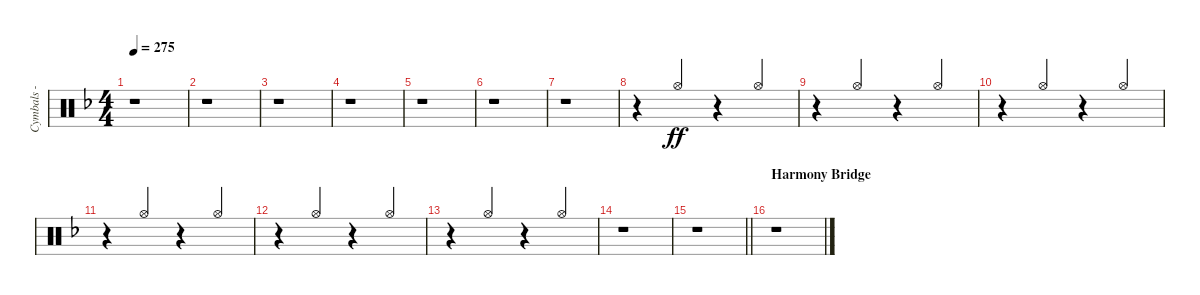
\track ("Cymbals - hi-hat" "Cymbals - ") {instrument percussion}
\staff {score}
\articulation defaults
\ts (4 4)
\tempo 275
\clef neutral
\ks dminor
r.1{dy ff} |
r.1 |
r.1 |
r.1 |
r.1 |
r.1 |
r.1 |
r.4 "Hi-Hat (open)".4{beam Up} r.4 "Hi-Hat (open)".4{beam Up} |
r.4 "Hi-Hat (open)".4{beam Up} r.4 "Hi-Hat (open)".4{beam Up} |
r.4 "Hi-Hat (open)".4{beam Up} r.4 "Hi-Hat (open)".4{beam Up} |
r.4 "Hi-Hat (open)".4{beam Up} r.4 "Hi-Hat (open)".4{beam Up} |
r.4 "Hi-Hat (open)".4{beam Up} r.4 "Hi-Hat (open)".4{beam Up} |
r.4 "Hi-Hat (open)".4{beam Up} r.4 "Hi-Hat (open)".4{beam Up} |
r.1 |
\barLineRight lightlight
r.1 |
\section ("" "Harmony Bridge")
r.1
